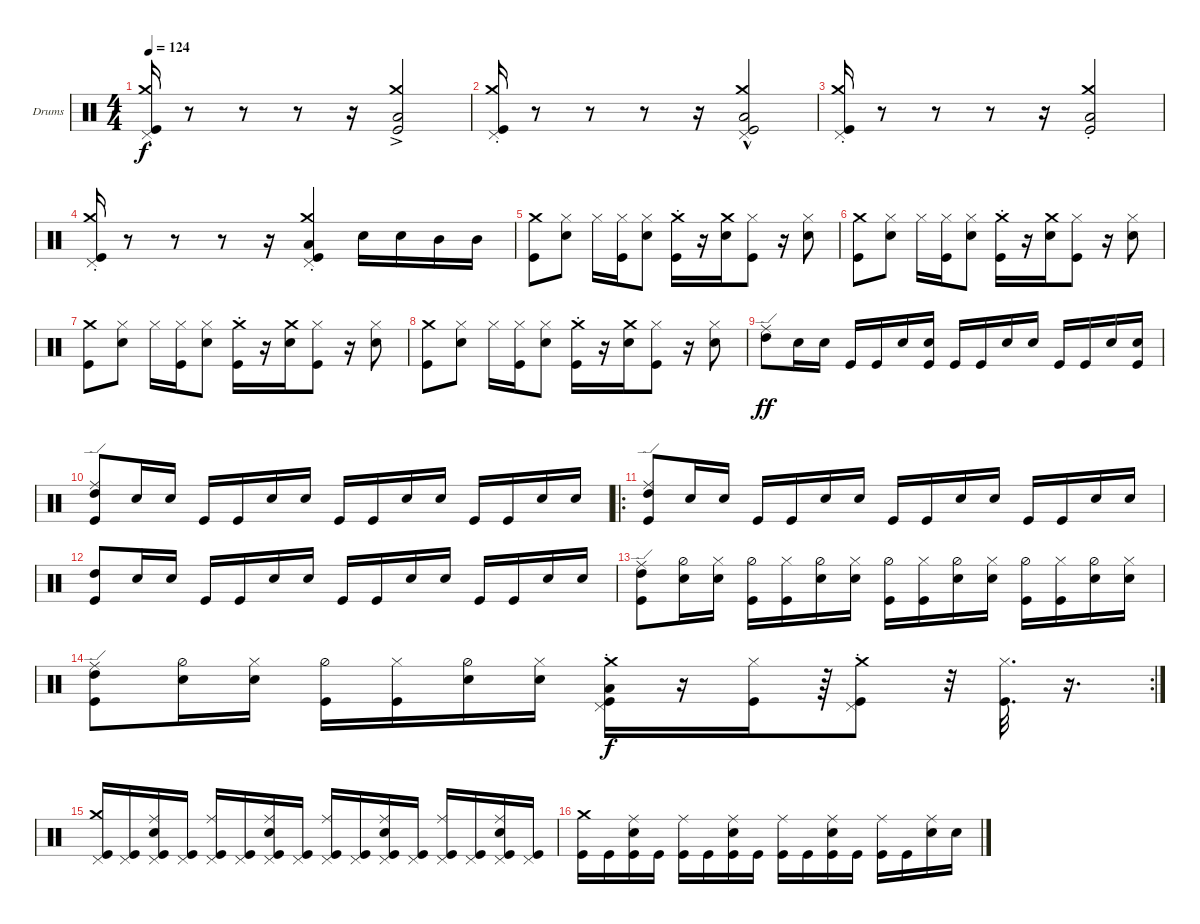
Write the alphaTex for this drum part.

\defaultSystemsLayout 4
\bracketExtendMode groupsimilarinstruments
\firstSystemTrackNameOrientation horizontal
\otherSystemsTrackNameOrientation horizontal
\track ("Drumkit" "Drums") {instrument percussion}
\staff {score}
\articulation defaults
\ts (4 4)
\tempo 124
\clef neutral
\ks c
("Kick (hit)" "Crash medium (hit)"{st} "Pedal Hi-Hat (hit)").16{dy f} r.8 r.8 r.8 r.16 ("Kick (hit)"{ac} "Crash medium (hit)"{ac} "Low Tom (hit)"{ac}).2 |
("Kick (hit)" "Crash medium (hit)"{st} "Pedal Hi-Hat (hit)").16 r.8 r.8 r.8 r.16 ("Kick (hit)"{hac} "Crash medium (hit)"{hac} "Low Tom (hit)"{hac} "Pedal Hi-Hat (hit)"{hac}).2 |
("Kick (hit)" "Crash medium (hit)"{st} "Pedal Hi-Hat (hit)").16 r.8 r.8 r.8 r.16 ("Kick (hit)" "Crash medium (hit)"{st} "Low Tom (hit)").2 |
("Kick (hit)" "Crash medium (hit)"{st} "Pedal Hi-Hat (hit)").16 r.8 r.8 r.8 r.16 ("Kick (hit)"{st} "Crash medium (hit)"{st} "Low Tom (hit)"{st} "Pedal Hi-Hat (hit)"{st}).4 "Snare (hit) 2".16 "Snare (hit) 2".16 "Mid Tom (hit)".16 "Mid Tom (hit)".16 |
("Kick (hit)" "Crash medium (hit)").8 ("Snare (hit) 2" "Hi-Hat (closed)").8 "Hi-Hat (closed)".16 ("Kick (hit)" "Hi-Hat (closed)").16 ("Snare (hit) 2" "Hi-Hat (closed)").8 ("Kick (hit)"{st} "Crash medium (hit)"{st}).16 r.16 ("Crash medium (hit)" "Snare (hit) 2").16 ("Kick (hit)" "Hi-Hat (closed)").8 r.16 ("Hi-Hat (closed)" "Snare (hit) 2").8 |
("Kick (hit)" "Crash medium (hit)").8 ("Snare (hit) 2" "Hi-Hat (closed)").8 "Hi-Hat (closed)".16 ("Kick (hit)" "Hi-Hat (closed)").16 ("Snare (hit) 2" "Hi-Hat (closed)").8 ("Kick (hit)"{st} "Crash medium (hit)"{st}).16 r.16 ("Crash medium (hit)" "Snare (hit) 2").16 ("Kick (hit)" "Hi-Hat (closed)").8 r.16 ("Hi-Hat (closed)" "Snare (hit) 2").8 |
("Kick (hit)" "Crash medium (hit)").8 ("Snare (hit) 2" "Hi-Hat (closed)").8 "Hi-Hat (closed)".16 ("Kick (hit)" "Hi-Hat (closed)").16 ("Snare (hit) 2" "Hi-Hat (closed)").8 ("Kick (hit)"{st} "Crash medium (hit)"{st}).16 r.16 ("Crash medium (hit)" "Snare (hit) 2").16 ("Kick (hit)" "Hi-Hat (closed)").8 r.16 ("Hi-Hat (closed)" "Snare (hit) 2").8 |
("Kick (hit)" "Crash medium (hit)").8 ("Snare (hit) 2" "Hi-Hat (closed)").8 "Hi-Hat (closed)".16 ("Kick (hit)" "Hi-Hat (closed)").16 ("Snare (hit) 2" "Hi-Hat (closed)").8 ("Kick (hit)"{st} "Crash medium (hit)"{st}).16 r.16 ("Crash medium (hit)" "Snare (hit) 2").16 ("Kick (hit)" "Hi-Hat (closed)").8 r.16 ("Hi-Hat (closed)" "Snare (hit) 2").8 |
("Ride (edge)" "High Tom (hit)").8{dy ff} "Snare (hit) 2".16 "Snare (hit) 2".16 "Kick (hit)".16 "Kick (hit)".16 "Snare (hit) 2".16 ("Snare (hit) 2" "Kick (hit)").16 "Kick (hit)".16 "Kick (hit)".16 "Snare (hit) 2".16 "Snare (hit) 2".16 "Kick (hit)".16 "Kick (hit)".16 "Snare (hit) 2".16 ("Snare (hit) 2" "Kick (hit)").16 |
("Kick (hit)" "Ride (edge)" "High Tom (hit)").8 "Snare (hit) 2".16 "Snare (hit) 2".16 "Kick (hit)".16 "Kick (hit)".16 "Snare (hit) 2".16 "Snare (hit) 2".16 "Kick (hit)".16 "Kick (hit)".16 "Snare (hit) 2".16 "Snare (hit) 2".16 "Kick (hit)".16 "Kick (hit)".16 "Snare (hit) 2".16 "Snare (hit) 2".16 |
\ro
("Kick (hit)" "Ride (edge)" "High Tom (hit)").8 "Snare (hit) 2".16 "Snare (hit) 2".16 "Kick (hit)".16 "Kick (hit)".16 "Snare (hit) 2".16 "Snare (hit) 2".16 "Kick (hit)".16 "Kick (hit)".16 "Snare (hit) 2".16 "Snare (hit) 2".16 "Kick (hit)".16 "Kick (hit)".16 "Snare (hit) 2".16 "Snare (hit) 2".16 |
("Kick (hit)" "High Tom (hit)").8 "Snare (hit) 2".16 "Snare (hit) 2".16 "Kick (hit)".16 "Kick (hit)".16 "Snare (hit) 2".16 "Snare (hit) 2".16 "Kick (hit)".16 "Kick (hit)".16 "Snare (hit) 2".16 "Snare (hit) 2".16 "Kick (hit)".16 "Kick (hit)".16 "Snare (hit) 2".16 "Snare (hit) 2".16 |
("Kick (hit)" "Ride (edge)" "High Tom (hit)").8 ("Snare (hit) 2" "Hi-Hat (half)").16 ("Snare (hit) 2" "Hi-Hat (closed)").16 ("Kick (hit)" "Hi-Hat (half)").16 ("Kick (hit)" "Hi-Hat (closed)").16 ("Snare (hit) 2" "Hi-Hat (half)").16 ("Snare (hit) 2" "Hi-Hat (closed)").16 ("Kick (hit)" "Hi-Hat (half)").16 ("Kick (hit)" "Hi-Hat (closed)").16 ("Snare (hit) 2" "Hi-Hat (half)").16 ("Snare (hit) 2" "Hi-Hat (closed)").16 ("Kick (hit)" "Hi-Hat (half)").16 ("Kick (hit)" "Hi-Hat (closed)").16 ("Snare (hit) 2" "Hi-Hat (half)").16 ("Snare (hit) 2" "Hi-Hat (closed)").16 |
\rc 2
("Kick (hit)" "Ride (edge)" "High Tom (hit)").8 ("Snare (hit) 2" "Hi-Hat (half)").16 ("Snare (hit) 2" "Hi-Hat (closed)").16 ("Kick (hit)" "Hi-Hat (half)").16 ("Kick (hit)" "Hi-Hat (closed)").16 ("Snare (hit) 2" "Hi-Hat (half)").16 ("Snare (hit) 2" "Hi-Hat (closed)").16 ("Kick (hit)" "Crash medium (hit)"{st} "Pedal Hi-Hat (hit)" "Low Tom (hit)").16{dy f} r.16 ("Hi-Hat (closed)" "Kick (hit)").16 r.64 ("Kick (hit)" "Crash medium (hit)"{st} "Pedal Hi-Hat (hit)").8 r.32 ("Hi-Hat (closed)" "Kick (hit)").32{d} r.16{d} |
("Crash medium (hit)" "Kick (hit)" "Pedal Hi-Hat (hit)").16 ("Kick (hit)" "Pedal Hi-Hat (hit)").16 ("Snare (hit) 2" "Ride (middle)" "Kick (hit)" "Pedal Hi-Hat (hit)").16 ("Kick (hit)" "Pedal Hi-Hat (hit)").16 ("Ride (middle)" "Kick (hit)" "Pedal Hi-Hat (hit)").16 ("Kick (hit)" "Pedal Hi-Hat (hit)").16 ("Snare (hit) 2" "Ride (middle)" "Kick (hit)" "Pedal Hi-Hat (hit)").16 ("Kick (hit)" "Pedal Hi-Hat (hit)").16 ("Ride (middle)" "Kick (hit)" "Pedal Hi-Hat (hit)").16 ("Kick (hit)" "Pedal Hi-Hat (hit)").16 ("Snare (hit) 2" "Ride (middle)" "Kick (hit)" "Pedal Hi-Hat (hit)").16 ("Kick (hit)" "Pedal Hi-Hat (hit)").16 ("Ride (middle)" "Kick (hit)" "Pedal Hi-Hat (hit)").16 ("Kick (hit)" "Pedal Hi-Hat (hit)").16 ("Snare (hit) 2" "Ride (middle)" "Kick (hit)" "Pedal Hi-Hat (hit)").16 ("Kick (hit)" "Pedal Hi-Hat (hit)").16 |
("Crash medium (hit)" "Kick (hit)").16 "Kick (hit)".16 ("Snare (hit) 2" "Ride (middle)" "Kick (hit)").16 "Kick (hit)".16 ("Ride (middle)" "Kick (hit)").16 "Kick (hit)".16 ("Snare (hit) 2" "Ride (middle)" "Kick (hit)").16 "Kick (hit)".16 ("Ride (middle)" "Kick (hit)").16 "Kick (hit)".16 ("Snare (hit) 2" "Ride (middle)" "Kick (hit)").16 "Kick (hit)".16 ("Ride (middle)" "Kick (hit)").16 "Kick (hit)".16 ("Snare (hit) 2" "Ride (middle)").16 "Snare (hit) 2".16
